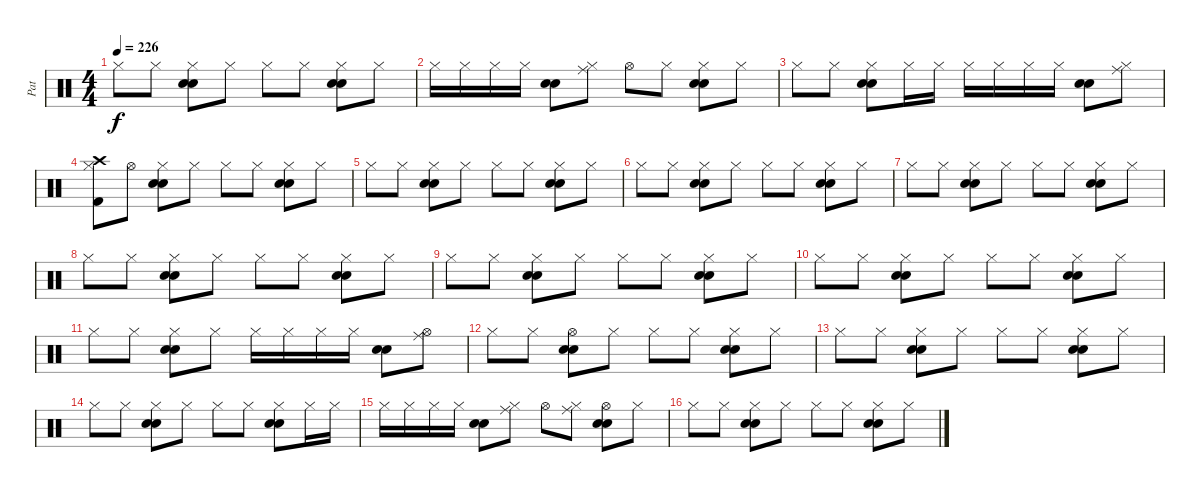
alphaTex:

\track ("Pat" "Pat") {instrument percussion}
\staff {score}
\articulation defaults
\ts (4 4)
\tempo 226
\clef neutral
\ks c "Hi-Hat (closed)".8{dy f} "Hi-Hat (closed)".8
("Hi-Hat (closed)" "Snare (hit) 2" "Electric Snare (hit)").8 "Hi-Hat (closed)".8 "Hi-Hat (closed)".8 "Hi-Hat (closed)".8 ("Hi-Hat (closed)" "Snare (hit) 2" "Electric Snare (hit)").8 "Hi-Hat (closed)".8 |
"Hi-Hat (closed)".16 "Hi-Hat (closed)".16 "Hi-Hat (closed)".16 "Hi-Hat (closed)".16 ("Snare (hit) 2" "Electric Snare (hit)").8 ("Hi-Hat (closed)" "Ride (middle)").8 "Hi-Hat (open)".8 "Hi-Hat (closed)".8 ("Hi-Hat (closed)" "Snare (hit) 2" "Electric Snare (hit)").8 "Hi-Hat (closed)".8 |
"Hi-Hat (closed)".8 "Hi-Hat (closed)".8 ("Hi-Hat (closed)" "Snare (hit) 2" "Electric Snare (hit)").8 "Hi-Hat (closed)".16 "Hi-Hat (closed)".16 "Hi-Hat (closed)".16 "Hi-Hat (closed)".16 "Hi-Hat (closed)".16 "Hi-Hat (closed)".16 ("Snare (hit) 2" "Electric Snare (hit)").8 ("Hi-Hat (closed)" "Ride (middle)").8 |
("Hi-Hat (closed)" "Crash high (hit)" "Kick (hit) 2").8 "Hi-Hat (open)".8 ("Hi-Hat (closed)" "Snare (hit) 2" "Electric Snare (hit)").8 "Hi-Hat (closed)".8 "Hi-Hat (closed)".8 "Hi-Hat (closed)".8 ("Hi-Hat (closed)" "Snare (hit) 2" "Electric Snare (hit)").8 "Hi-Hat (closed)".8 |
"Hi-Hat (closed)".8 "Hi-Hat (closed)".8 ("Hi-Hat (closed)" "Snare (hit) 2" "Electric Snare (hit)").8 "Hi-Hat (closed)".8 "Hi-Hat (closed)".8 "Hi-Hat (closed)".8 ("Hi-Hat (closed)" "Snare (hit) 2" "Electric Snare (hit)").8 "Hi-Hat (closed)".8 |
"Hi-Hat (closed)".8 "Hi-Hat (closed)".8 ("Hi-Hat (closed)" "Snare (hit) 2" "Electric Snare (hit)").8 "Hi-Hat (closed)".8 "Hi-Hat (closed)".8 "Hi-Hat (closed)".8 ("Hi-Hat (closed)" "Snare (hit) 2" "Electric Snare (hit)").8 "Hi-Hat (closed)".8 |
"Hi-Hat (closed)".8 "Hi-Hat (closed)".8 ("Hi-Hat (closed)" "Snare (hit) 2" "Electric Snare (hit)").8 "Hi-Hat (closed)".8 "Hi-Hat (closed)".8 "Hi-Hat (closed)".8 ("Hi-Hat (closed)" "Snare (hit) 2" "Electric Snare (hit)").8 "Hi-Hat (closed)".8 |
"Hi-Hat (closed)".8 "Hi-Hat (closed)".8 ("Hi-Hat (closed)" "Snare (hit) 2" "Electric Snare (hit)").8 "Hi-Hat (closed)".8 "Hi-Hat (closed)".8 "Hi-Hat (closed)".8 ("Hi-Hat (closed)" "Snare (hit) 2" "Electric Snare (hit)").8 "Hi-Hat (closed)".8 |
"Hi-Hat (closed)".8 "Hi-Hat (closed)".8 ("Hi-Hat (closed)" "Snare (hit) 2" "Electric Snare (hit)").8 "Hi-Hat (closed)".8 "Hi-Hat (closed)".8 "Hi-Hat (closed)".8 ("Hi-Hat (closed)" "Snare (hit) 2" "Electric Snare (hit)").8 "Hi-Hat (closed)".8 |
"Hi-Hat (closed)".8 "Hi-Hat (closed)".8 ("Hi-Hat (closed)" "Snare (hit) 2" "Electric Snare (hit)").8 "Hi-Hat (closed)".8 "Hi-Hat (closed)".8 "Hi-Hat (closed)".8 ("Hi-Hat (closed)" "Snare (hit) 2" "Electric Snare (hit)").8 "Hi-Hat (closed)".8 |
"Hi-Hat (closed)".8 "Hi-Hat (closed)".8 ("Hi-Hat (closed)" "Snare (hit) 2" "Electric Snare (hit)").8 "Hi-Hat (closed)".8 "Hi-Hat (closed)".16 "Hi-Hat (closed)".16 "Hi-Hat (closed)".16 "Hi-Hat (closed)".16 ("Snare (hit) 2" "Electric Snare (hit)").8 ("Hi-Hat (open)" "Ride (middle)").8 |
"Hi-Hat (closed)".8 "Hi-Hat (closed)".8 ("Hi-Hat (open)" "Snare (hit) 2" "Electric Snare (hit)").8 "Hi-Hat (closed)".8 "Hi-Hat (closed)".8 "Hi-Hat (closed)".8 ("Hi-Hat (closed)" "Snare (hit) 2" "Electric Snare (hit)").8 "Hi-Hat (closed)".8 |
"Hi-Hat (closed)".8 "Hi-Hat (closed)".8 ("Hi-Hat (closed)" "Snare (hit) 2" "Electric Snare (hit)").8 "Hi-Hat (closed)".8 "Hi-Hat (closed)".8 "Hi-Hat (closed)".8 ("Hi-Hat (closed)" "Snare (hit) 2" "Electric Snare (hit)").8 "Hi-Hat (closed)".8 |
"Hi-Hat (closed)".8 "Hi-Hat (closed)".8 ("Hi-Hat (closed)" "Snare (hit) 2" "Electric Snare (hit)").8 "Hi-Hat (closed)".8 "Hi-Hat (closed)".8 "Hi-Hat (closed)".8 ("Hi-Hat (closed)" "Snare (hit) 2" "Electric Snare (hit)").8 "Hi-Hat (closed)".16 "Hi-Hat (closed)".16 |
"Hi-Hat (closed)".16 "Hi-Hat (closed)".16 "Hi-Hat (closed)".16 "Hi-Hat (closed)".16 ("Snare (hit) 2" "Electric Snare (hit)").8 ("Hi-Hat (closed)" "Ride (middle)").8 "Hi-Hat (open)".8 ("Hi-Hat (closed)" "Ride (middle)").8 ("Hi-Hat (open)" "Snare (hit) 2" "Electric Snare (hit)").8 "Hi-Hat (closed)".8 |
"Hi-Hat (closed)".8 "Hi-Hat (closed)".8 ("Hi-Hat (closed)" "Snare (hit) 2" "Electric Snare (hit)").8 "Hi-Hat (closed)".8 "Hi-Hat (closed)".8 "Hi-Hat (closed)".8 ("Hi-Hat (closed)" "Snare (hit) 2" "Electric Snare (hit)").8 "Hi-Hat (closed)".8
